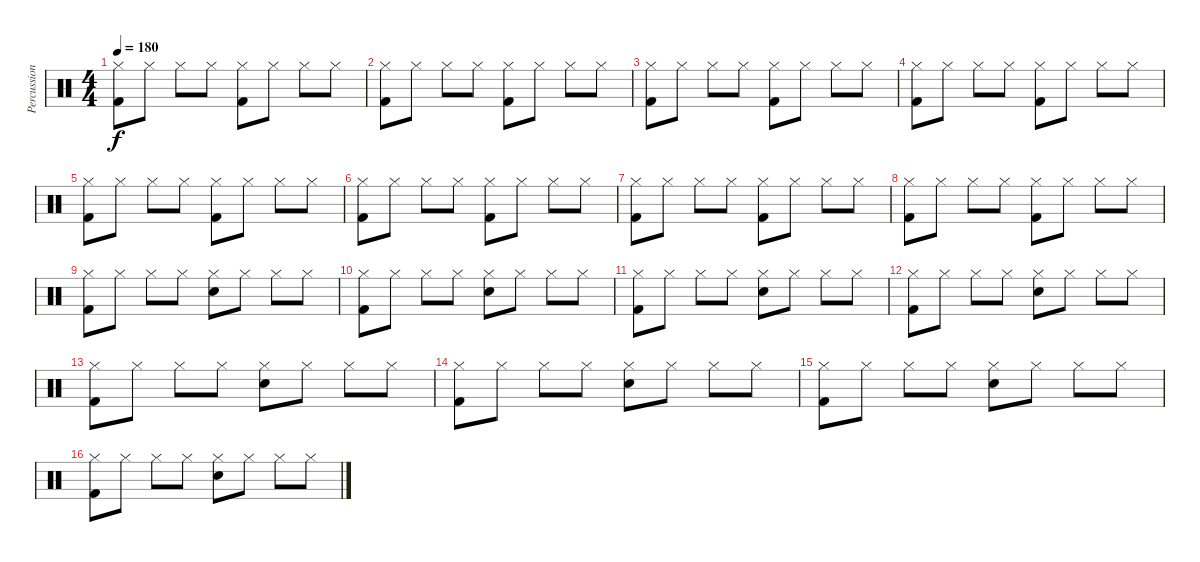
\track ("Percussion / Drums" "Percussion") {instrument percussion}
\staff {score}
\articulation defaults
\ts (4 4)
\tempo 180
\clef neutral
\ks c
("Kick (hit) 2" "Hi-Hat (closed)").8{dy f} "Hi-Hat (closed)".8 "Hi-Hat (closed)".8 "Hi-Hat (closed)".8 ("Kick (hit) 2" "Hi-Hat (closed)").8 "Hi-Hat (closed)".8 "Hi-Hat (closed)".8 "Hi-Hat (closed)".8 |
("Kick (hit) 2" "Hi-Hat (closed)").8 "Hi-Hat (closed)".8 "Hi-Hat (closed)".8 "Hi-Hat (closed)".8 ("Kick (hit) 2" "Hi-Hat (closed)").8 "Hi-Hat (closed)".8 "Hi-Hat (closed)".8 "Hi-Hat (closed)".8 |
("Kick (hit) 2" "Hi-Hat (closed)").8 "Hi-Hat (closed)".8 "Hi-Hat (closed)".8 "Hi-Hat (closed)".8 ("Kick (hit) 2" "Hi-Hat (closed)").8 "Hi-Hat (closed)".8 "Hi-Hat (closed)".8 "Hi-Hat (closed)".8 |
("Kick (hit) 2" "Hi-Hat (closed)").8 "Hi-Hat (closed)".8 "Hi-Hat (closed)".8 "Hi-Hat (closed)".8 ("Kick (hit) 2" "Hi-Hat (closed)").8 "Hi-Hat (closed)".8 "Hi-Hat (closed)".8 "Hi-Hat (closed)".8 |
("Kick (hit) 2" "Hi-Hat (closed)").8 "Hi-Hat (closed)".8 "Hi-Hat (closed)".8 "Hi-Hat (closed)".8 ("Kick (hit) 2" "Hi-Hat (closed)").8 "Hi-Hat (closed)".8 "Hi-Hat (closed)".8 "Hi-Hat (closed)".8 |
("Kick (hit) 2" "Hi-Hat (closed)").8 "Hi-Hat (closed)".8 "Hi-Hat (closed)".8 "Hi-Hat (closed)".8 ("Kick (hit) 2" "Hi-Hat (closed)").8 "Hi-Hat (closed)".8 "Hi-Hat (closed)".8 "Hi-Hat (closed)".8 |
("Kick (hit) 2" "Hi-Hat (closed)").8 "Hi-Hat (closed)".8 "Hi-Hat (closed)".8 "Hi-Hat (closed)".8 ("Kick (hit) 2" "Hi-Hat (closed)").8 "Hi-Hat (closed)".8 "Hi-Hat (closed)".8 "Hi-Hat (closed)".8 |
("Kick (hit) 2" "Hi-Hat (closed)").8 "Hi-Hat (closed)".8 "Hi-Hat (closed)".8 "Hi-Hat (closed)".8 ("Kick (hit) 2" "Hi-Hat (closed)").8 "Hi-Hat (closed)".8 "Hi-Hat (closed)".8 "Hi-Hat (closed)".8 |
("Kick (hit) 2" "Hi-Hat (closed)").8 "Hi-Hat (closed)".8 "Hi-Hat (closed)".8 "Hi-Hat (closed)".8 ("Snare (hit) 2" "Hi-Hat (closed)").8 "Hi-Hat (closed)".8 "Hi-Hat (closed)".8 "Hi-Hat (closed)".8 |
("Kick (hit) 2" "Hi-Hat (closed)").8 "Hi-Hat (closed)".8 "Hi-Hat (closed)".8 "Hi-Hat (closed)".8 ("Snare (hit) 2" "Hi-Hat (closed)").8 "Hi-Hat (closed)".8 "Hi-Hat (closed)".8 "Hi-Hat (closed)".8 |
("Kick (hit) 2" "Hi-Hat (closed)").8 "Hi-Hat (closed)".8 "Hi-Hat (closed)".8 "Hi-Hat (closed)".8 ("Snare (hit) 2" "Hi-Hat (closed)").8 "Hi-Hat (closed)".8 "Hi-Hat (closed)".8 "Hi-Hat (closed)".8 |
("Kick (hit) 2" "Hi-Hat (closed)").8 "Hi-Hat (closed)".8 "Hi-Hat (closed)".8 "Hi-Hat (closed)".8 ("Snare (hit) 2" "Hi-Hat (closed)").8 "Hi-Hat (closed)".8 "Hi-Hat (closed)".8 "Hi-Hat (closed)".8 |
("Kick (hit) 2" "Hi-Hat (closed)").8 "Hi-Hat (closed)".8 "Hi-Hat (closed)".8 "Hi-Hat (closed)".8 ("Snare (hit) 2" "Hi-Hat (closed)").8 "Hi-Hat (closed)".8 "Hi-Hat (closed)".8 "Hi-Hat (closed)".8 |
("Kick (hit) 2" "Hi-Hat (closed)").8 "Hi-Hat (closed)".8 "Hi-Hat (closed)".8 "Hi-Hat (closed)".8 ("Snare (hit) 2" "Hi-Hat (closed)").8 "Hi-Hat (closed)".8 "Hi-Hat (closed)".8 "Hi-Hat (closed)".8 |
("Kick (hit) 2" "Hi-Hat (closed)").8 "Hi-Hat (closed)".8 "Hi-Hat (closed)".8 "Hi-Hat (closed)".8 ("Snare (hit) 2" "Hi-Hat (closed)").8 "Hi-Hat (closed)".8 "Hi-Hat (closed)".8 "Hi-Hat (closed)".8 |
("Kick (hit) 2" "Hi-Hat (closed)").8 "Hi-Hat (closed)".8 "Hi-Hat (closed)".8 "Hi-Hat (closed)".8 ("Snare (hit) 2" "Hi-Hat (closed)").8 "Hi-Hat (closed)".8 "Hi-Hat (closed)".8 "Hi-Hat (closed)".8
